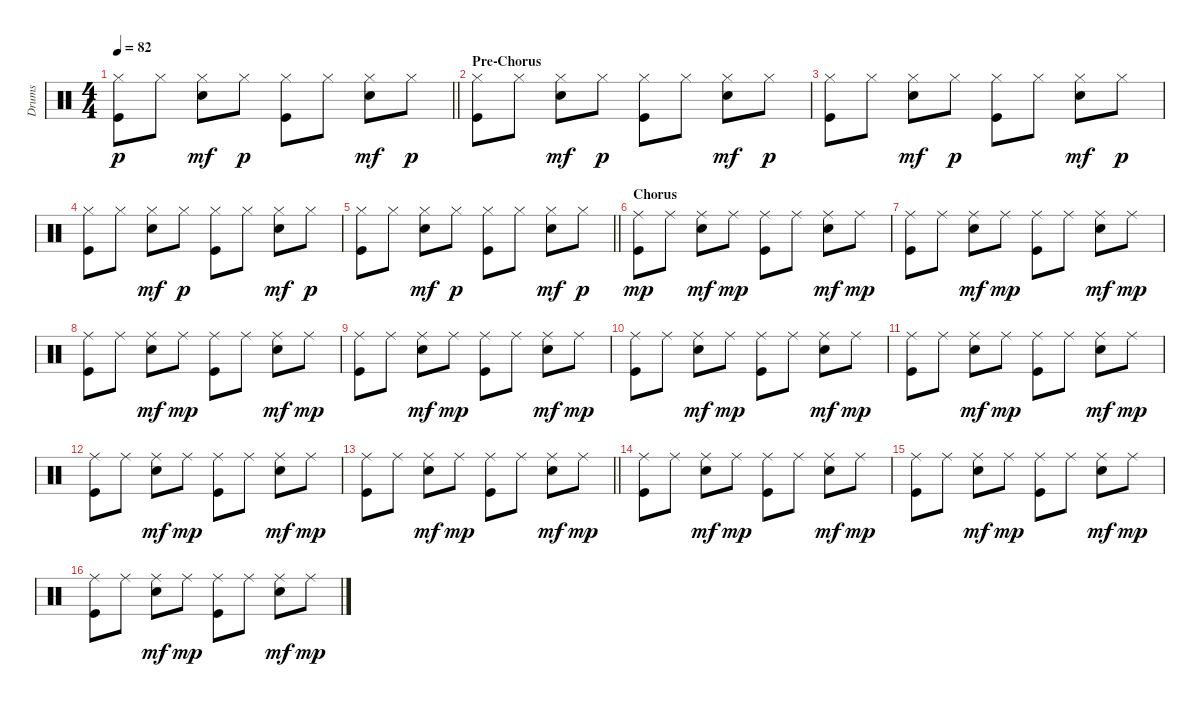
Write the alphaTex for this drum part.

\track ("Drums" "Drums") {instrument percussion}
\staff {score}
\articulation defaults
\ts (4 4)
\tempo 82
\clef neutral
\barLineRight lightlight
\ks c
("Hi-Hat (closed)" "Kick (hit)").8{dy p} "Hi-Hat (closed)".8 ("Hi-Hat (closed)" "Snare (hit) 2").8{dy mf} "Hi-Hat (closed)".8{dy p} ("Hi-Hat (closed)" "Kick (hit)").8 "Hi-Hat (closed)".8 ("Hi-Hat (closed)" "Snare (hit) 2").8{dy mf} "Hi-Hat (closed)".8{dy p} |
\section ("" "Pre-Chorus")
("Hi-Hat (closed)" "Kick (hit)").8 "Hi-Hat (closed)".8 ("Hi-Hat (closed)" "Snare (hit) 2").8{dy mf} "Hi-Hat (closed)".8{dy p} ("Hi-Hat (closed)" "Kick (hit)").8 "Hi-Hat (closed)".8 ("Hi-Hat (closed)" "Snare (hit) 2").8{dy mf} "Hi-Hat (closed)".8{dy p} |
("Hi-Hat (closed)" "Kick (hit)").8 "Hi-Hat (closed)".8 ("Hi-Hat (closed)" "Snare (hit) 2").8{dy mf} "Hi-Hat (closed)".8{dy p} ("Hi-Hat (closed)" "Kick (hit)").8 "Hi-Hat (closed)".8 ("Hi-Hat (closed)" "Snare (hit) 2").8{dy mf} "Hi-Hat (closed)".8{dy p} |
("Hi-Hat (closed)" "Kick (hit)").8 "Hi-Hat (closed)".8 ("Hi-Hat (closed)" "Snare (hit) 2").8{dy mf} "Hi-Hat (closed)".8{dy p} ("Hi-Hat (closed)" "Kick (hit)").8 "Hi-Hat (closed)".8 ("Hi-Hat (closed)" "Snare (hit) 2").8{dy mf} "Hi-Hat (closed)".8{dy p} |
\barLineRight lightlight
("Hi-Hat (closed)" "Kick (hit)").8 "Hi-Hat (closed)".8 ("Hi-Hat (closed)" "Snare (hit) 2").8{dy mf} "Hi-Hat (closed)".8{dy p} ("Hi-Hat (closed)" "Kick (hit)").8 "Hi-Hat (closed)".8 ("Hi-Hat (closed)" "Snare (hit) 2").8{dy mf} "Hi-Hat (closed)".8{dy p} |
\section ("" "Chorus")
("Ride (middle)" "Kick (hit)").8{dy mp} "Ride (middle)".8 ("Ride (middle)" "Snare (hit) 2").8{dy mf} "Ride (middle)".8{dy mp} ("Ride (middle)" "Kick (hit)").8 "Ride (middle)".8 ("Ride (middle)" "Snare (hit) 2").8{dy mf} "Ride (middle)".8{dy mp} |
("Ride (middle)" "Kick (hit)").8 "Ride (middle)".8 ("Ride (middle)" "Snare (hit) 2").8{dy mf} "Ride (middle)".8{dy mp} ("Ride (middle)" "Kick (hit)").8 "Ride (middle)".8 ("Ride (middle)" "Snare (hit) 2").8{dy mf} "Ride (middle)".8{dy mp} |
("Ride (middle)" "Kick (hit)").8 "Ride (middle)".8 ("Ride (middle)" "Snare (hit) 2").8{dy mf} "Ride (middle)".8{dy mp} ("Ride (middle)" "Kick (hit)").8 "Ride (middle)".8 ("Ride (middle)" "Snare (hit) 2").8{dy mf} "Ride (middle)".8{dy mp} |
("Ride (middle)" "Kick (hit)").8 "Ride (middle)".8 ("Ride (middle)" "Snare (hit) 2").8{dy mf} "Ride (middle)".8{dy mp} ("Ride (middle)" "Kick (hit)").8 "Ride (middle)".8 ("Ride (middle)" "Snare (hit) 2").8{dy mf} "Ride (middle)".8{dy mp} |
("Ride (middle)" "Kick (hit)").8 "Ride (middle)".8 ("Ride (middle)" "Snare (hit) 2").8{dy mf} "Ride (middle)".8{dy mp} ("Ride (middle)" "Kick (hit)").8 "Ride (middle)".8 ("Ride (middle)" "Snare (hit) 2").8{dy mf} "Ride (middle)".8{dy mp} |
("Ride (middle)" "Kick (hit)").8 "Ride (middle)".8 ("Ride (middle)" "Snare (hit) 2").8{dy mf} "Ride (middle)".8{dy mp} ("Ride (middle)" "Kick (hit)").8 "Ride (middle)".8 ("Ride (middle)" "Snare (hit) 2").8{dy mf} "Ride (middle)".8{dy mp} |
("Ride (middle)" "Kick (hit)").8 "Ride (middle)".8 ("Ride (middle)" "Snare (hit) 2").8{dy mf} "Ride (middle)".8{dy mp} ("Ride (middle)" "Kick (hit)").8 "Ride (middle)".8 ("Ride (middle)" "Snare (hit) 2").8{dy mf} "Ride (middle)".8{dy mp} |
\barLineRight lightlight
("Ride (middle)" "Kick (hit)").8 "Ride (middle)".8 ("Ride (middle)" "Snare (hit) 2").8{dy mf} "Ride (middle)".8{dy mp} ("Ride (middle)" "Kick (hit)").8 "Ride (middle)".8 ("Ride (middle)" "Snare (hit) 2").8{dy mf} "Ride (middle)".8{dy mp} |
("Ride (middle)" "Kick (hit)").8 "Ride (middle)".8 ("Ride (middle)" "Snare (hit) 2").8{dy mf} "Ride (middle)".8{dy mp} ("Ride (middle)" "Kick (hit)").8 "Ride (middle)".8 ("Ride (middle)" "Snare (hit) 2").8{dy mf} "Ride (middle)".8{dy mp} |
("Ride (middle)" "Kick (hit)").8 "Ride (middle)".8 ("Ride (middle)" "Snare (hit) 2").8{dy mf} "Ride (middle)".8{dy mp} ("Ride (middle)" "Kick (hit)").8 "Ride (middle)".8 ("Ride (middle)" "Snare (hit) 2").8{dy mf} "Ride (middle)".8{dy mp} |
("Ride (middle)" "Kick (hit)").8 "Ride (middle)".8 ("Ride (middle)" "Snare (hit) 2").8{dy mf} "Ride (middle)".8{dy mp} ("Ride (middle)" "Kick (hit)").8 "Ride (middle)".8 ("Ride (middle)" "Snare (hit) 2").8{dy mf} "Ride (middle)".8{dy mp}
